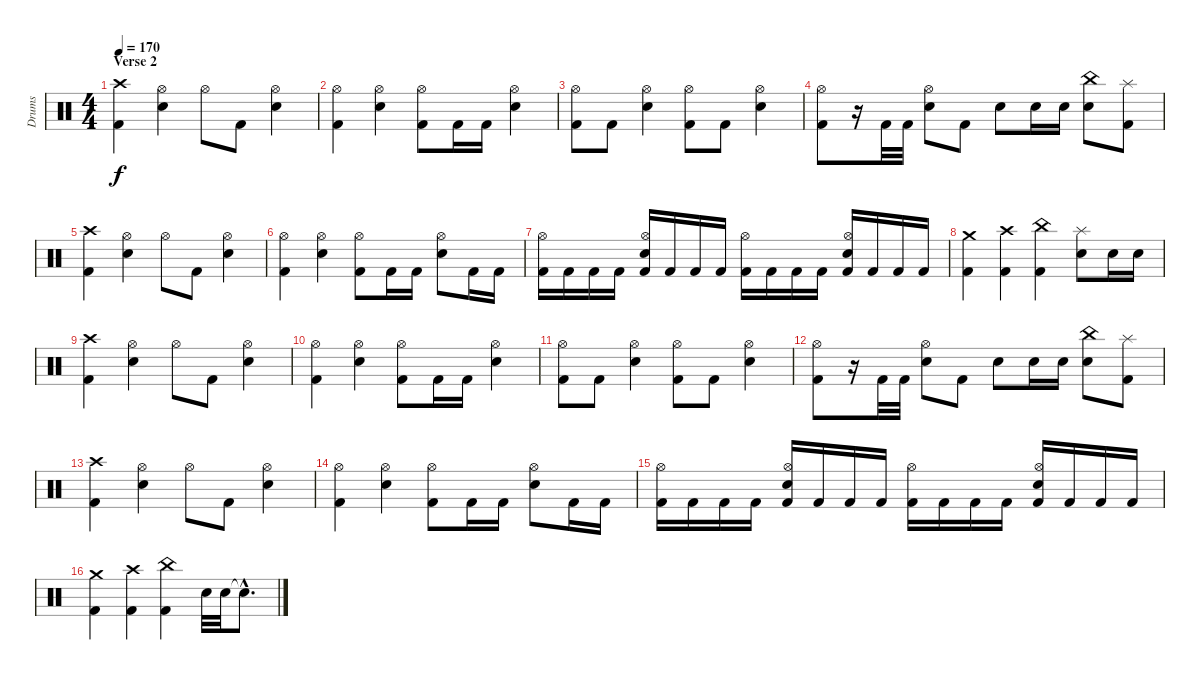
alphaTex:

\track ("Drums" "Drums") {instrument percussion}
\staff {score}
\articulation defaults
\ts (4 4)
\section ("" "Verse 2")
\tempo 170
\clef neutral
\ks c
("Crash high (hit)" "Kick (hit) 2").4{dy f} ("Hi-Hat (open)" "Electric Snare (hit)").4 "Hi-Hat (open)".8 "Kick (hit) 2".8 ("Hi-Hat (open)" "Electric Snare (hit)").4 |
("Hi-Hat (open)" "Kick (hit) 2").4 ("Hi-Hat (open)" "Electric Snare (hit)").4 ("Hi-Hat (open)" "Kick (hit) 2").8 "Kick (hit) 2".16 "Kick (hit) 2".16 ("Hi-Hat (open)" "Electric Snare (hit)").4 |
("Hi-Hat (open)" "Kick (hit) 2").8 "Kick (hit) 2".8 ("Hi-Hat (open)" "Electric Snare (hit)").4 ("Hi-Hat (open)" "Kick (hit) 2").8 "Kick (hit) 2".8 ("Hi-Hat (open)" "Electric Snare (hit)").4 |
("Hi-Hat (open)" "Kick (hit) 2").8 r.16 "Kick (hit) 2".32 "Kick (hit) 2".32 ("Hi-Hat (open)" "Electric Snare (hit)").8 "Kick (hit) 2".8 "Electric Snare (hit)".8 "Electric Snare (hit)".16 "Electric Snare (hit)".16 ("China (hit)" "Electric Snare (hit)").8 ("Splash (hit)" "Kick (hit) 2").8 |
("Crash high (hit)" "Kick (hit) 2").4 ("Hi-Hat (open)" "Electric Snare (hit)").4 "Hi-Hat (open)".8 "Kick (hit) 2".8 ("Hi-Hat (open)" "Electric Snare (hit)").4 |
("Hi-Hat (open)" "Kick (hit) 2").4 ("Hi-Hat (open)" "Electric Snare (hit)").4 ("Hi-Hat (open)" "Kick (hit) 2").8 "Kick (hit) 2".16 "Kick (hit) 2".16 ("Hi-Hat (open)" "Electric Snare (hit)").8 "Kick (hit) 2".16 "Kick (hit) 2".16 |
("Hi-Hat (open)" "Kick (hit) 2").16 "Kick (hit) 2".16 "Kick (hit) 2".16 "Kick (hit) 2".16 ("Hi-Hat (open)" "Electric Snare (hit)" "Kick (hit) 2").16 "Kick (hit) 2".16 "Kick (hit) 2".16 "Kick (hit) 2".16 ("Hi-Hat (open)" "Kick (hit) 2").16 "Kick (hit) 2".16 "Kick (hit) 2".16 "Kick (hit) 2".16 ("Hi-Hat (open)" "Electric Snare (hit)" "Kick (hit) 2").16 "Kick (hit) 2".16 "Kick (hit) 2".16 "Kick (hit) 2".16 |
("Crash medium (hit)" "Kick (hit) 2").4 ("Crash high (hit)" "Kick (hit) 2").4 ("China (hit)" "Kick (hit) 2").4 ("Splash (hit)" "Electric Snare (hit)").8 "Electric Snare (hit)".16 "Electric Snare (hit)".16 |
("Crash high (hit)" "Kick (hit) 2").4 ("Hi-Hat (open)" "Electric Snare (hit)").4 "Hi-Hat (open)".8 "Kick (hit) 2".8 ("Hi-Hat (open)" "Electric Snare (hit)").4 |
("Hi-Hat (open)" "Kick (hit) 2").4 ("Hi-Hat (open)" "Electric Snare (hit)").4 ("Hi-Hat (open)" "Kick (hit) 2").8 "Kick (hit) 2".16 "Kick (hit) 2".16 ("Hi-Hat (open)" "Electric Snare (hit)").4 |
("Hi-Hat (open)" "Kick (hit) 2").8 "Kick (hit) 2".8 ("Hi-Hat (open)" "Electric Snare (hit)").4 ("Hi-Hat (open)" "Kick (hit) 2").8 "Kick (hit) 2".8 ("Hi-Hat (open)" "Electric Snare (hit)").4 |
("Hi-Hat (open)" "Kick (hit) 2").8 r.16 "Kick (hit) 2".32 "Kick (hit) 2".32 ("Hi-Hat (open)" "Electric Snare (hit)").8 "Kick (hit) 2".8 "Electric Snare (hit)".8 "Electric Snare (hit)".16 "Electric Snare (hit)".16 ("China (hit)" "Electric Snare (hit)").8 ("Splash (hit)" "Kick (hit) 2").8 |
("Crash high (hit)" "Kick (hit) 2").4 ("Hi-Hat (open)" "Electric Snare (hit)").4 "Hi-Hat (open)".8 "Kick (hit) 2".8 ("Hi-Hat (open)" "Electric Snare (hit)").4 |
("Hi-Hat (open)" "Kick (hit) 2").4 ("Hi-Hat (open)" "Electric Snare (hit)").4 ("Hi-Hat (open)" "Kick (hit) 2").8 "Kick (hit) 2".16 "Kick (hit) 2".16 ("Hi-Hat (open)" "Electric Snare (hit)").8 "Kick (hit) 2".16 "Kick (hit) 2".16 |
("Hi-Hat (open)" "Kick (hit) 2").16 "Kick (hit) 2".16 "Kick (hit) 2".16 "Kick (hit) 2".16 ("Hi-Hat (open)" "Electric Snare (hit)" "Kick (hit) 2").16 "Kick (hit) 2".16 "Kick (hit) 2".16 "Kick (hit) 2".16 ("Hi-Hat (open)" "Kick (hit) 2").16 "Kick (hit) 2".16 "Kick (hit) 2".16 "Kick (hit) 2".16 ("Hi-Hat (open)" "Electric Snare (hit)" "Kick (hit) 2").16 "Kick (hit) 2".16 "Kick (hit) 2".16 "Kick (hit) 2".16 |
("Crash medium (hit)" "Kick (hit) 2").4 ("Crash high (hit)" "Kick (hit) 2").4 ("China (hit)" "Kick (hit) 2").4 "Electric Snare (hit)".32 "Electric Snare (hit)".32 "Snare (hit)"{hac t}.8{d}
